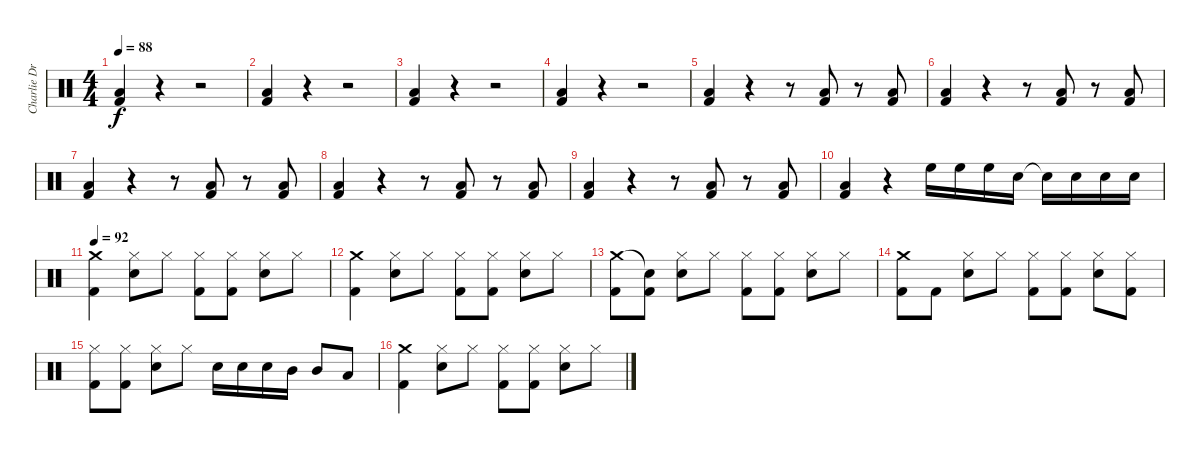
\track ("Charlie Drums" "Charlie Dr") {instrument percussion}
\staff {score}
\articulation defaults
\ts (4 4)
\tempo 88
\clef neutral
\ks c
("Low Floor Tom (hit)" "Kick (hit) 2").4{dy f} r.4 r.2 |
("Low Floor Tom (hit)" "Kick (hit) 2").4 r.4 r.2 |
("Low Floor Tom (hit)" "Kick (hit) 2").4 r.4 r.2 |
("Low Floor Tom (hit)" "Kick (hit) 2").4 r.4 r.2 |
("Low Floor Tom (hit)" "Kick (hit) 2").4 r.4 r.8 ("Low Floor Tom (hit)" "Kick (hit) 2").8 r.8 ("Low Floor Tom (hit)" "Kick (hit) 2").8 |
("Low Floor Tom (hit)" "Kick (hit) 2").4 r.4 r.8 ("Low Floor Tom (hit)" "Kick (hit) 2").8 r.8 ("Low Floor Tom (hit)" "Kick (hit) 2").8 |
("Low Floor Tom (hit)" "Kick (hit) 2").4 r.4 r.8 ("Low Floor Tom (hit)" "Kick (hit) 2").8 r.8 ("Low Floor Tom (hit)" "Kick (hit) 2").8 |
("Low Floor Tom (hit)" "Kick (hit) 2").4 r.4 r.8 ("Low Floor Tom (hit)" "Kick (hit) 2").8 r.8 ("Low Floor Tom (hit)" "Kick (hit) 2").8 |
("Low Floor Tom (hit)" "Kick (hit) 2").4 r.4 r.8 ("Low Floor Tom (hit)" "Kick (hit) 2").8 r.8 ("Low Floor Tom (hit)" "Kick (hit) 2").8 |
("Low Floor Tom (hit)" "Kick (hit) 2").4 r.4 "High Floor Tom (hit)".16 "High Floor Tom (hit)".16 "High Floor Tom (hit)".16 "Snare (hit) 2".16 "Snare (hit)"{t}.16 "Snare (hit) 2".16 "Snare (hit) 2".16 "Snare (hit) 2".16 |
\tempo 92
("Crash medium (hit)" "Kick (hit) 2").4 ("Hi-Hat (closed)" "Snare (hit) 2").8 "Hi-Hat (closed)".8 ("Hi-Hat (closed)" "Kick (hit) 2").8 ("Hi-Hat (closed)" "Kick (hit) 2").8 ("Hi-Hat (closed)" "Snare (hit) 2").8 "Hi-Hat (closed)".8 |
("Crash medium (hit)" "Kick (hit) 2").4 ("Hi-Hat (closed)" "Snare (hit) 2").8 "Hi-Hat (closed)".8 ("Hi-Hat (closed)" "Kick (hit) 2").8 ("Hi-Hat (closed)" "Kick (hit) 2").8 ("Hi-Hat (closed)" "Snare (hit) 2").8 "Hi-Hat (closed)".8 |
("Crash medium (hit)" "Kick (hit) 2").8 ("Snare (hit)"{t} "Kick (hit) 2").8 ("Hi-Hat (closed)" "Snare (hit) 2").8 "Hi-Hat (closed)".8 ("Hi-Hat (closed)" "Kick (hit) 2").8 ("Hi-Hat (closed)" "Kick (hit) 2").8 ("Hi-Hat (closed)" "Snare (hit) 2").8 "Hi-Hat (closed)".8 |
("Crash medium (hit)" "Kick (hit) 2").8 "Kick (hit) 2".8 ("Hi-Hat (closed)" "Snare (hit) 2").8 "Hi-Hat (closed)".8 ("Hi-Hat (closed)" "Kick (hit) 2").8 ("Hi-Hat (closed)" "Kick (hit) 2").8 ("Hi-Hat (closed)" "Snare (hit) 2").8 ("Hi-Hat (closed)" "Kick (hit) 2").8 |
("Hi-Hat (closed)" "Kick (hit) 2").8 ("Hi-Hat (closed)" "Kick (hit) 2").8 ("Hi-Hat (closed)" "Snare (hit) 2").8 "Hi-Hat (closed)".8 "Snare (hit) 2".16 "Snare (hit) 2".16 "Snare (hit) 2".16 "Mid Tom (hit)".16 "Mid Tom (hit)".8 "Low Tom (hit)".8 |
("Crash medium (hit)" "Kick (hit) 2").4 ("Hi-Hat (closed)" "Snare (hit) 2").8 "Hi-Hat (closed)".8 ("Hi-Hat (closed)" "Kick (hit) 2").8 ("Hi-Hat (closed)" "Kick (hit) 2").8 ("Hi-Hat (closed)" "Snare (hit) 2").8 "Hi-Hat (closed)".8
